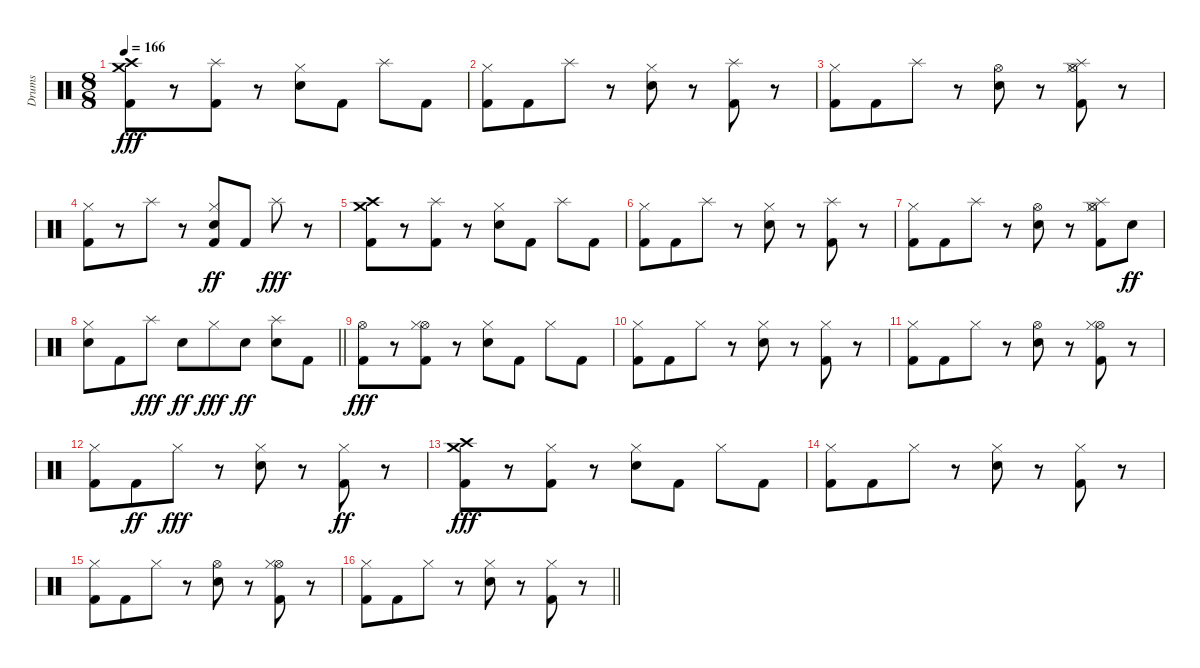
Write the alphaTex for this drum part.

\track ("Drums" "Drums") {instrument percussion}
\staff {score}
\articulation defaults
\ts (8 8)
\tempo 166
\clef neutral
\ks c
("Crash high (hit)" "Crash medium (hit)" "Kick (hit) 2").8{dy fff} r.8 ("Splash (hit)" "Kick (hit) 2").8 r.8 ("Hi-Hat (closed)" "Electric Snare (hit)").8 "Kick (hit) 2".8 "Splash (hit)".8 "Kick (hit) 2".8 |
("Hi-Hat (closed)" "Kick (hit) 2").8 "Kick (hit) 2".8 "Splash (hit)".8 r.8 ("Hi-Hat (closed)" "Electric Snare (hit)").8 r.8 ("Splash (hit)" "Kick (hit) 2").8 r.8 |
("Hi-Hat (closed)" "Kick (hit) 2").8 "Kick (hit) 2".8 "Splash (hit)".8 r.8 ("Hi-Hat (open)" "Electric Snare (hit)").8 r.8 ("Hi-Hat (open)" "Hi-Hat (closed)" "Splash (hit)" "Kick (hit) 2").8 r.8 |
("Hi-Hat (closed)" "Kick (hit) 2").8 r.8 "Splash (hit)".8 r.8 ("Hi-Hat (closed)" "Electric Snare (hit)" "Kick (hit) 2").8{dy ff} "Kick (hit) 2".8 "Splash (hit)".8{dy fff} r.8 |
("Crash high (hit)" "Crash medium (hit)" "Kick (hit) 2").8 r.8 ("Splash (hit)" "Kick (hit) 2").8 r.8 ("Hi-Hat (closed)" "Electric Snare (hit)").8 "Kick (hit) 2".8 "Splash (hit)".8 "Kick (hit) 2".8 |
("Hi-Hat (closed)" "Kick (hit) 2").8 "Kick (hit) 2".8 "Splash (hit)".8 r.8 ("Hi-Hat (closed)" "Electric Snare (hit)").8 r.8 ("Splash (hit)" "Kick (hit) 2").8 r.8 |
("Hi-Hat (closed)" "Kick (hit) 2").8 "Kick (hit) 2".8 "Splash (hit)".8 r.8 ("Hi-Hat (open)" "Electric Snare (hit)").8 r.8 ("Hi-Hat (open)" "Hi-Hat (closed)" "Splash (hit)" "Kick (hit) 2").8 "Electric Snare (hit)".8{dy ff} |
\barLineRight lightlight
("Hi-Hat (closed)" "Electric Snare (hit)").8 "Kick (hit) 2".8 "Splash (hit)".8{dy fff} "Electric Snare (hit)".8{dy ff} "Hi-Hat (closed)".8{dy fff} "Electric Snare (hit)".8{dy ff} ("Splash (hit)" "Electric Snare (hit)").8 "Kick (hit) 2".8 |
("Hi-Hat (open)" "Kick (hit) 2").8{dy fff} r.8 ("Hi-Hat (open)" "Hi-Hat (closed)" "Kick (hit) 2").8 r.8 ("Hi-Hat (closed)" "Electric Snare (hit)").8 "Kick (hit) 2".8 "Hi-Hat (closed)".8 "Kick (hit) 2".8 |
("Hi-Hat (closed)" "Kick (hit) 2").8 "Kick (hit) 2".8 "Hi-Hat (closed)".8 r.8 ("Hi-Hat (closed)" "Electric Snare (hit)").8 r.8 ("Hi-Hat (closed)" "Kick (hit) 2").8 r.8 |
("Hi-Hat (closed)" "Kick (hit) 2").8 "Kick (hit) 2".8 "Hi-Hat (closed)".8 r.8 ("Hi-Hat (open)" "Electric Snare (hit)").8 r.8 ("Hi-Hat (open)" "Hi-Hat (closed)" "Kick (hit) 2").8 r.8 |
("Hi-Hat (closed)" "Kick (hit) 2").8 "Kick (hit) 2".8{dy ff} "Hi-Hat (closed)".8{dy fff} r.8 ("Hi-Hat (closed)" "Electric Snare (hit)").8 r.8 ("Hi-Hat (closed)" "Kick (hit) 2").8{dy ff} r.8 |
("Crash high (hit)" "Crash medium (hit)" "Kick (hit) 2").8{dy fff} r.8 ("Hi-Hat (closed)" "Kick (hit) 2").8 r.8 ("Hi-Hat (closed)" "Electric Snare (hit)").8 "Kick (hit) 2".8 "Hi-Hat (closed)".8 "Kick (hit) 2".8 |
("Hi-Hat (closed)" "Kick (hit) 2").8 "Kick (hit) 2".8 "Hi-Hat (closed)".8 r.8 ("Hi-Hat (closed)" "Electric Snare (hit)").8 r.8 ("Hi-Hat (closed)" "Kick (hit) 2").8 r.8 |
("Hi-Hat (closed)" "Kick (hit) 2").8 "Kick (hit) 2".8 "Hi-Hat (closed)".8 r.8 ("Hi-Hat (open)" "Electric Snare (hit)").8 r.8 ("Hi-Hat (open)" "Hi-Hat (closed)" "Kick (hit) 2").8 r.8 |
\barLineRight lightlight
("Hi-Hat (closed)" "Kick (hit) 2").8 "Kick (hit) 2".8 "Hi-Hat (closed)".8 r.8 ("Hi-Hat (closed)" "Electric Snare (hit)").8 r.8 ("Hi-Hat (closed)" "Kick (hit) 2").8 r.8
